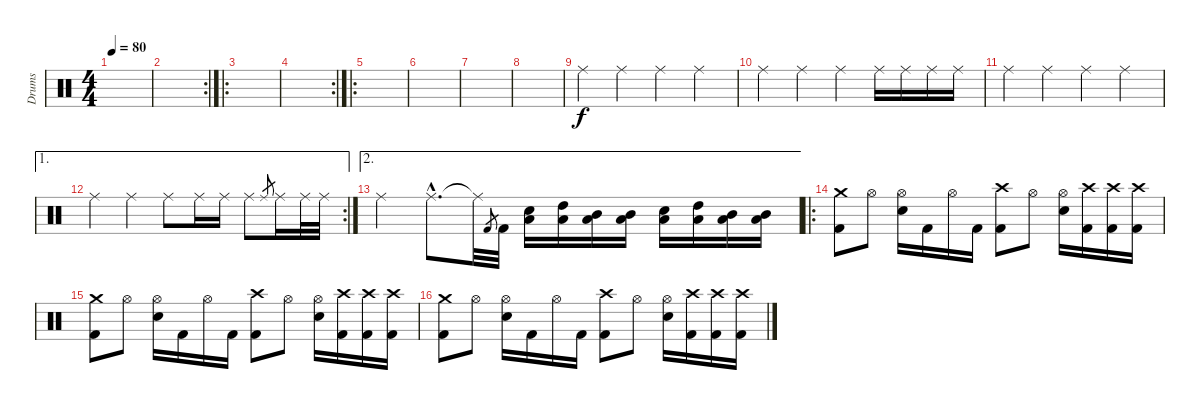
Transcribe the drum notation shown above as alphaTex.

\track ("Drums" "Drums") {instrument percussion}
\staff {score}
\articulation defaults
\ts (4 4)
\tempo 80
\clef neutral
\ks c
|
\rc 2
|
\ro
|
\rc 2
|
\ro
|
|
|
|
"Ride (middle)".4 "Ride (middle)".4 "Ride (middle)".4 "Ride (middle)".4 |
"Ride (middle)".4 "Ride (middle)".4 "Ride (middle)".4 "Ride (middle)".16 "Ride (middle)".16 "Ride (middle)".16 "Ride (middle)".16 |
"Ride (middle)".4 "Ride (middle)".4 "Ride (middle)".4 "Ride (middle)".4 |
\ae 1
\rc 2 "Ride (middle)".4 "Ride (middle)".4 "Ride (middle)".8 "Ride (middle)".16 "Ride (middle)".16 "Ride (middle)".8 "Ride (middle)".8{gr} "Ride (middle)".16 "Ride (middle)".32 "Ride (middle)".32
|
\ae 2 "Ride (middle)".4 "Ride (middle)"{hac}.8{d} "Ride (middle)"{t}.32 "Kick (hit) 2".8{gr} "Kick (hit) 2".32
("Electric Snare (hit)" "Low Tom (hit)").16 ("High Tom (hit)" "Low Tom (hit)").16 ("Mid Tom (hit)" "Low Floor Tom (hit)").16 ("Mid Tom (hit)" "Low Floor Tom (hit)").16 ("Electric Snare (hit)" "Low Tom (hit)").16 ("High Tom (hit)" "Low Tom (hit)").16 ("Mid Tom (hit)" "Low Floor Tom (hit)").16 ("Mid Tom (hit)" "Low Floor Tom (hit)").16 |
\ro
("Crash medium (hit)" "Kick (hit) 2").8 "Hi-Hat (open)".8 ("Hi-Hat (open)" "Electric Snare (hit)").16 "Kick (hit) 2".16 "Hi-Hat (open)".16 "Kick (hit) 2".16 ("Crash high (hit)" "Kick (hit) 2").8 "Hi-Hat (open)".8 ("Hi-Hat (open)" "Electric Snare (hit)").16 ("Crash high (hit)" "Kick (hit) 2").16 ("Crash high (hit)" "Kick (hit) 2").16 ("Crash high (hit)" "Kick (hit) 2").16 |
("Crash medium (hit)" "Kick (hit) 2").8 "Hi-Hat (open)".8 ("Hi-Hat (open)" "Electric Snare (hit)").16 "Kick (hit) 2".16 "Hi-Hat (open)".16 "Kick (hit) 2".16 ("Crash high (hit)" "Kick (hit) 2").8 "Hi-Hat (open)".8 ("Hi-Hat (open)" "Electric Snare (hit)").16 ("Crash high (hit)" "Kick (hit) 2").16 ("Crash high (hit)" "Kick (hit) 2").16 ("Crash high (hit)" "Kick (hit) 2").16 |
("Crash medium (hit)" "Kick (hit) 2").8 "Hi-Hat (open)".8 ("Hi-Hat (open)" "Electric Snare (hit)").16 "Kick (hit) 2".16 "Hi-Hat (open)".16 "Kick (hit) 2".16 ("Crash high (hit)" "Kick (hit) 2").8 "Hi-Hat (open)".8 ("Hi-Hat (open)" "Electric Snare (hit)").16 ("Crash high (hit)" "Kick (hit) 2").16 ("Crash high (hit)" "Kick (hit) 2").16 ("Crash high (hit)" "Kick (hit) 2").16
